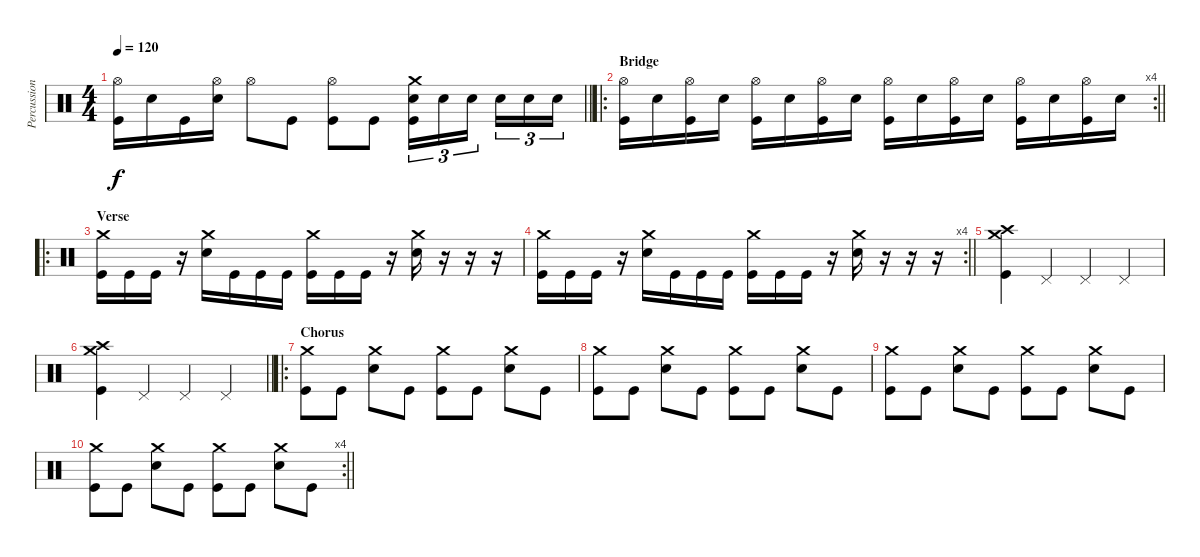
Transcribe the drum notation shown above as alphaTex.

\track ("Percussion" "Percussion") {instrument percussion}
\staff {score}
\articulation defaults
\ts (4 4)
\tempo 120
\clef neutral
\barLineRight lightlight
\ks c
("Hi-Hat (open)" "Kick (hit)").16{dy f} "Snare (hit) 2".16 "Kick (hit)".16 ("Hi-Hat (open)" "Snare (hit) 2").16 "Hi-Hat (open)".8 "Kick (hit)".8 ("Hi-Hat (open)" "Kick (hit)").8 "Kick (hit)".8 ("Crash medium (hit)" "Snare (hit) 2" "Kick (hit)").16{tu (3 2)} "Snare (hit) 2".16{tu (3 2)} "Snare (hit) 2".16{tu (3 2) beam splitsecondary} "Snare (hit) 2".16{tu (3 2)} "Snare (hit) 2".16{tu (3 2)} "Snare (hit) 2".16{tu (3 2)} |
\ro
\rc 4
\section ("" "Bridge")
\barLineRight lightlight
("Hi-Hat (open)" "Kick (hit)").16 "Snare (hit) 2".16 ("Hi-Hat (open)" "Kick (hit)").16 "Snare (hit) 2".16 ("Hi-Hat (open)" "Kick (hit)").16 "Snare (hit) 2".16 ("Hi-Hat (open)" "Kick (hit)").16 "Snare (hit) 2".16 ("Hi-Hat (open)" "Kick (hit)").16 "Snare (hit) 2".16 ("Hi-Hat (open)" "Kick (hit)").16 "Snare (hit) 2".16 ("Hi-Hat (open)" "Kick (hit)").16 "Snare (hit) 2".16 ("Hi-Hat (open)" "Kick (hit)").16 "Snare (hit) 2".16 |
\ro
\section ("" "Verse")
("Crash medium (hit)" "Kick (hit)").16 "Kick (hit)".16 "Kick (hit)".16 r.16 ("Crash medium (hit)" "Snare (hit) 2").16 "Kick (hit)".16 "Kick (hit)".16 "Kick (hit)".16 ("Crash medium (hit)" "Kick (hit)").16 "Kick (hit)".16 "Kick (hit)".16 r.16 ("Crash medium (hit)" "Snare (hit) 2").16 r.16 r.16 r.16 |
\rc 4
\barLineRight lightlight
("Crash medium (hit)" "Kick (hit)").16 "Kick (hit)".16 "Kick (hit)".16 r.16 ("Crash medium (hit)" "Snare (hit) 2").16 "Kick (hit)".16 "Kick (hit)".16 "Kick (hit)".16 ("Crash medium (hit)" "Kick (hit)").16 "Kick (hit)".16 "Kick (hit)".16 r.16 ("Crash medium (hit)" "Snare (hit) 2").16 r.16 r.16 r.16 |
("Crash medium (hit)" "Crash high (hit)" "Kick (hit)").4 "Pedal Hi-Hat (hit)".4 "Pedal Hi-Hat (hit)".4 "Pedal Hi-Hat (hit)".4 |
\barLineRight lightlight
("Crash medium (hit)" "Crash high (hit)" "Kick (hit)").4 "Pedal Hi-Hat (hit)".4 "Pedal Hi-Hat (hit)".4 "Pedal Hi-Hat (hit)".4 |
\ro
\section ("" "Chorus")
("Crash medium (hit)" "Kick (hit)").8 "Kick (hit)".8 ("Crash medium (hit)" "Snare (hit) 2").8 "Kick (hit)".8 ("Crash medium (hit)" "Kick (hit)").8 "Kick (hit)".8 ("Crash medium (hit)" "Snare (hit) 2").8 "Kick (hit)".8 |
("Crash medium (hit)" "Kick (hit)").8 "Kick (hit)".8 ("Crash medium (hit)" "Snare (hit) 2").8 "Kick (hit)".8 ("Crash medium (hit)" "Kick (hit)").8 "Kick (hit)".8 ("Crash medium (hit)" "Snare (hit) 2").8 "Kick (hit)".8 |
("Crash medium (hit)" "Kick (hit)").8 "Kick (hit)".8 ("Crash medium (hit)" "Snare (hit) 2").8 "Kick (hit)".8 ("Crash medium (hit)" "Kick (hit)").8 "Kick (hit)".8 ("Crash medium (hit)" "Snare (hit) 2").8 "Kick (hit)".8 |
\rc 4
\barLineRight lightlight
("Crash medium (hit)" "Kick (hit)").8 "Kick (hit)".8 ("Crash medium (hit)" "Snare (hit) 2").8 "Kick (hit)".8 ("Crash medium (hit)" "Kick (hit)").8 "Kick (hit)".8 ("Crash medium (hit)" "Snare (hit) 2").8 "Kick (hit)".8
